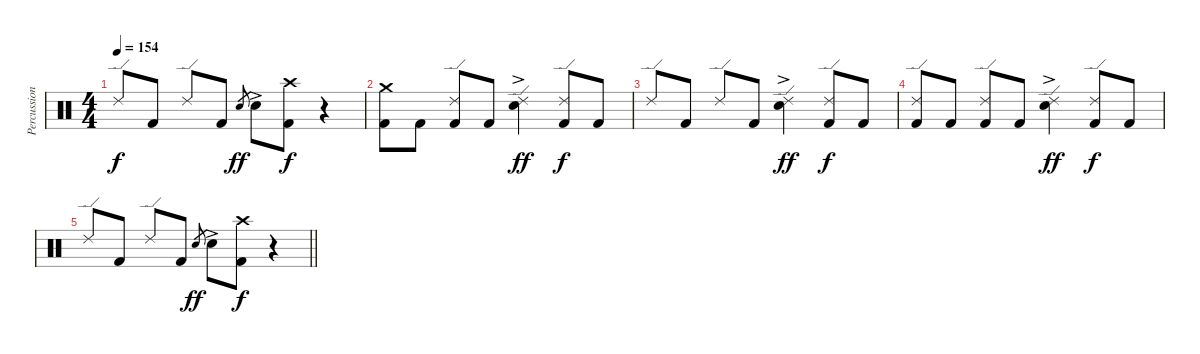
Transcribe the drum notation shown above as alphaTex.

\track ("Percussion" "Percussion") {instrument percussion}
\staff {score}
\articulation defaults
\ts (4 4)
\tempo 154
\clef neutral
\ks c "Ride (edge) 2".8{dy f} "Kick (hit) 2".8 "Ride (edge) 2".8 "Kick (hit) 2".8 "Electric Snare (hit)".8{gr dy ff} "Electric Snare (hit)"{ac}.8
("Crash high (hit)" "Kick (hit) 2").8{dy f} r.4 |
("Crash medium (hit)" "Kick (hit) 2").8 "Kick (hit) 2".8 ("Ride (edge) 2" "Kick (hit) 2").8 "Kick (hit) 2".8 ("Ride (edge) 2" "Electric Snare (hit)"{ac}).4{dy ff} ("Ride (edge) 2" "Kick (hit) 2").8{dy f} "Kick (hit) 2".8 |
"Ride (edge) 2".8 "Kick (hit) 2".8 "Ride (edge) 2".8 "Kick (hit) 2".8 ("Ride (edge) 2" "Electric Snare (hit)"{ac}).4{dy ff} ("Ride (edge) 2" "Kick (hit) 2").8{dy f} "Kick (hit) 2".8 |
("Ride (edge) 2" "Kick (hit) 2").8 "Kick (hit) 2".8 ("Ride (edge) 2" "Kick (hit) 2").8 "Kick (hit) 2".8 ("Ride (edge) 2" "Electric Snare (hit)"{ac}).4{dy ff} ("Ride (edge) 2" "Kick (hit) 2").8{dy f} "Kick (hit) 2".8 |
\barLineRight lightlight "Ride (edge) 2".8 "Kick (hit) 2".8 "Ride (edge) 2".8 "Kick (hit) 2".8 "Electric Snare (hit)".8{gr dy ff} "Electric Snare (hit)"{ac}.8
("Crash high (hit)" "Kick (hit) 2").8{dy f} r.4
